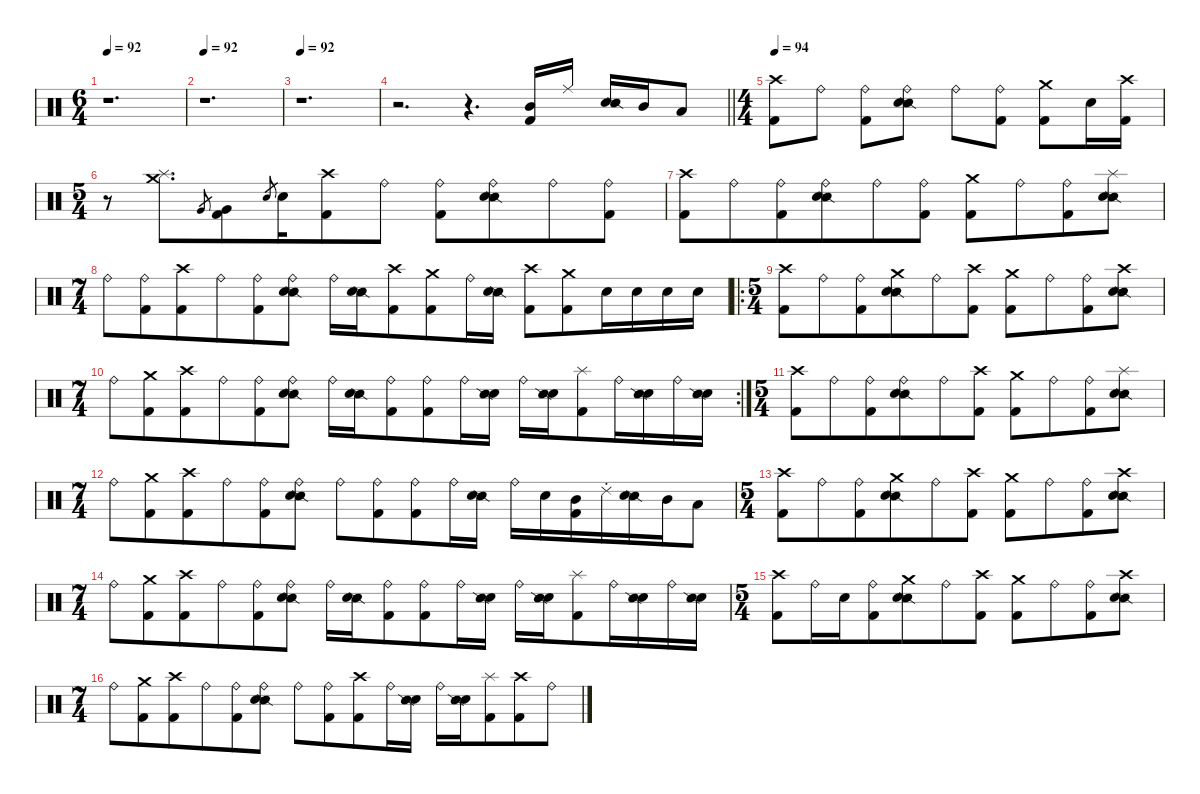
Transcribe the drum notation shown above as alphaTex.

\defaultSystemsLayout 4
\hideDynamics
\bracketExtendMode nobrackets
\singleTrackTrackNamePolicy hidden
\multiTrackTrackNamePolicy hidden
\firstSystemTrackNameMode fullname
\firstSystemTrackNameOrientation horizontal
\otherSystemsTrackNameOrientation horizontal
\track ("Drums" "drm.") {defaultSystemsLayout 4 instrument percussion}
\staff {score}
\articulation defaults
\ts (6 4)
\tempo 92
\clef neutral
\ks c
r.1{d dy fff beam Down} |
\tempo 92
r.1{d beam Down} |
\tempo 92
r.1{d beam Down} |
\barLineRight lightlight
r.2{d beam Down} r.4{d beam Down} ("Mid Tom (hit)" "Kick (hit) 2").16{beam Up} "Ride (middle)".16{beam Up} ("Snare (hit) 2" "Snare (side stick) 2").16{beam Up} "Mid Tom (hit)".16{beam Up} "Low Tom (hit)".8{beam Up} |
\ts (4 4)
\beaming (8 2 2 2 2)
\tempo 94
("Crash high (hit)" "Kick (hit) 2").8{beam Down} "Ride (bell)".8{dy f beam Down} ("Ride (bell)" "Kick (hit) 2").8{beam Down} ("Ride (bell)" "Snare (side stick) 2" "Snare (hit) 2").8{beam Down} "Ride (bell)".8{beam Down} ("Ride (bell)" "Kick (hit) 2").8{beam Down} ("Crash medium (hit)" "Kick (hit) 2").8{dy fff beam Down} "Snare (hit) 2".16{dy ff beam Down} ("Crash high (hit)" "Kick (hit) 2").16{dy fff beam Down} |
\ts (5 4)
\beaming (8 6 4)
r.8{beam Down} ("Crash medium (hit)" "Splash (hit)").8{d beam Down} "Very Low Tom (hit)".8{gr dy f beam Up} ("Very Low Tom (hit)" "Kick (hit) 2").8{beam Down} "Electric Snare (hit)".8{gr dy ff beam Up} "Snare (hit) 2".16{dy fff beam Down} ("Crash high (hit)" "Kick (hit) 2").8{beam Down} "Ride (bell)".8{dy f beam Down} ("Ride (bell)" "Kick (hit) 2").8{beam Down} ("Ride (bell)" "Snare (side stick) 2" "Snare (hit) 2").8{beam Down} "Ride (bell)".8{beam Down} ("Ride (bell)" "Kick (hit) 2").8{beam Down} |
("Crash high (hit)" "Kick (hit) 2").8{dy fff beam Down} "Ride (bell)".8{dy f beam Down} ("Ride (bell)" "Kick (hit) 2").8{beam Down} ("Ride (bell)" "Snare (side stick) 2" "Snare (hit) 2").8{beam Down} "Ride (bell)".8{beam Down} ("Ride (bell)" "Kick (hit) 2").8{beam Down} ("Crash medium (hit)" "Kick (hit) 2").8{dy fff beam Down} "Ride (bell)".8{dy f beam Down} ("Ride (bell)" "Kick (hit) 2").8{beam Down} ("Splash (hit)" "Snare (side stick) 2" "Snare (hit) 2").8{dy fff beam Down} |
\ts (7 4)
\beaming (8 6 4 4)
"Ride (bell)".8{dy f beam Down} ("Ride (bell)" "Kick (hit) 2").8{beam Down} ("Crash high (hit)" "Kick (hit) 2").8{dy fff beam Down} "Ride (bell)".8{dy f beam Down} ("Ride (bell)" "Kick (hit) 2").8{beam Down} ("Ride (bell)" "Snare (side stick) 2" "Snare (hit) 2").8{beam Down} "Ride (bell)".16{beam Down} ("Snare (side stick) 2" "Snare (hit) 2").16{dy ff beam Down} ("Crash high (hit)" "Kick (hit) 2").8{dy fff beam Down} ("Crash medium (hit)" "Kick (hit) 2").8{beam Down} "Ride (bell)".16{dy f beam Down} ("Snare (side stick) 2" "Snare (hit) 2").16{dy ff beam Down} ("Crash high (hit)" "Kick (hit) 2").8{dy fff beam Down} ("Crash medium (hit)" "Kick (hit) 2").8{beam Down} "Snare (hit) 2".16{beam Down} "Snare (hit) 2".16{beam Down} "Snare (hit) 2".16{beam Down} "Snare (hit) 2".16{beam Down} |
\ro
\ts (5 4)
\beaming (8 6 4)
("Crash high (hit)" "Kick (hit) 2").8{beam Down} "Ride (bell)".8{dy f beam Down} ("Ride (bell)" "Kick (hit) 2").8{beam Down} ("Crash medium (hit)" "Snare (side stick) 2" "Snare (hit) 2").8{dy fff beam Down} "Ride (bell)".8{dy f beam Down} ("Crash high (hit)" "Kick (hit) 2").8{dy fff beam Down} ("Crash medium (hit)" "Kick (hit) 2").8{beam Down} "Ride (bell)".8{dy f beam Down} ("Ride (bell)" "Kick (hit) 2").8{beam Down} ("Crash high (hit)" "Snare (side stick) 2" "Snare (hit) 2").8{dy fff beam Down} |
\rc 2
\ts (7 4)
\beaming (8 6 4 4)
"Ride (bell)".8{dy f beam Down} ("Crash medium (hit)" "Kick (hit) 2").8{dy fff beam Down} ("Crash high (hit)" "Kick (hit) 2").8{beam Down} "Ride (bell)".8{dy f beam Down} ("Ride (bell)" "Kick (hit) 2").8{beam Down} ("Ride (bell)" "Snare (side stick) 2" "Snare (hit) 2").8{beam Down} "Ride (bell)".16{beam Down} ("Snare (side stick) 2" "Snare (hit) 2").16{dy ff beam Down} ("Ride (bell)" "Kick (hit) 2").8{dy f beam Down} ("Ride (bell)" "Kick (hit) 2").8{beam Down} "Ride (bell)".16{beam Down} ("Snare (hit) 2" "Snare (side stick) 2").16{dy fff beam Down} "Ride (bell)".16{dy f beam Down} ("Snare (hit) 2" "Snare (side stick) 2").16{dy fff beam Down} ("Splash (hit)" "Kick (hit) 2").8{beam Down} "Ride (bell)".16{dy f beam Down} ("Snare (hit) 2" "Snare (side stick) 2").16{dy fff beam Down} "Ride (bell)".16{dy f beam Down} ("Snare (hit) 2" "Snare (side stick) 2").16{dy fff beam Down} |
\ts (5 4)
\beaming (8 6 4)
("Crash high (hit)" "Kick (hit) 2").8{beam Down} "Ride (bell)".8{dy f beam Down} ("Ride (bell)" "Kick (hit) 2").8{beam Down} ("Ride (bell)" "Snare (side stick) 2" "Snare (hit) 2").8{beam Down} "Ride (bell)".8{beam Down} ("Crash high (hit)" "Kick (hit) 2").8{dy fff beam Down} ("Crash medium (hit)" "Kick (hit) 2").8{beam Down} "Ride (bell)".8{dy f beam Down} ("Ride (bell)" "Kick (hit) 2").8{beam Down} ("Splash (hit)" "Snare (side stick) 2" "Snare (hit) 2").8{dy fff beam Down} |
\ts (7 4)
\beaming (8 6 4 4)
"Ride (bell)".8{dy f beam Down} ("Crash medium (hit)" "Kick (hit) 2").8{dy fff beam Down} ("Crash high (hit)" "Kick (hit) 2").8{beam Down} "Ride (bell)".8{dy f beam Down} ("Ride (bell)" "Kick (hit) 2").8{beam Down} ("Ride (bell)" "Snare (side stick) 2" "Snare (hit) 2").8{beam Down} "Ride (bell)".8{beam Down} ("Ride (bell)" "Kick (hit) 2").8{beam Down} ("Ride (bell)" "Kick (hit) 2").8{beam Down} "Ride (bell)".16{beam Down} ("Snare (side stick) 2" "Snare (hit) 2").16{dy ff beam Down} "Ride (bell)".16{dy f beam Down} "Snare (hit) 2".16{beam Down} ("Mid Tom (hit)" "Kick (hit) 2").16{beam Down} "Ride (choke) 2".16{dy fff beam Down} ("Snare (side stick) 2" "Snare (hit) 2").16{dy ff beam Down} "Mid Tom (hit)".16{dy fff beam Down} "Low Tom (hit)".8{beam Down} |
\ts (5 4)
\beaming (8 6 4)
("Crash high (hit)" "Kick (hit) 2").8{beam Down} "Ride (bell)".8{dy f beam Down} ("Ride (bell)" "Kick (hit) 2").8{beam Down} ("Crash medium (hit)" "Snare (side stick) 2" "Snare (hit) 2").8{dy fff beam Down} "Ride (bell)".8{dy f beam Down} ("Crash high (hit)" "Kick (hit) 2").8{dy fff beam Down} ("Crash medium (hit)" "Kick (hit) 2").8{beam Down} "Ride (bell)".8{dy f beam Down} ("Ride (bell)" "Kick (hit) 2").8{beam Down} ("Crash high (hit)" "Snare (side stick) 2" "Snare (hit) 2").8{dy fff beam Down} |
\ts (7 4)
\beaming (8 6 4 4)
"Ride (bell)".8{dy f beam Down} ("Crash medium (hit)" "Kick (hit) 2").8{dy fff beam Down} ("Crash high (hit)" "Kick (hit) 2").8{beam Down} "Ride (bell)".8{dy f beam Down} ("Ride (bell)" "Kick (hit) 2").8{beam Down} ("Ride (bell)" "Snare (side stick) 2" "Snare (hit) 2").8{beam Down} "Ride (bell)".16{beam Down} ("Snare (side stick) 2" "Snare (hit) 2").16{dy ff beam Down} ("Ride (bell)" "Kick (hit) 2").8{dy f beam Down} ("Ride (bell)" "Kick (hit) 2").8{beam Down} "Ride (bell)".16{beam Down} ("Snare (hit) 2" "Snare (side stick) 2").16{dy fff beam Down} "Ride (bell)".16{dy f beam Down} ("Snare (hit) 2" "Snare (side stick) 2").16{dy fff beam Down} ("Splash (hit)" "Kick (hit) 2").8{beam Down} "Ride (bell)".16{dy f beam Down} ("Snare (hit) 2" "Snare (side stick) 2").16{dy fff beam Down} "Ride (bell)".16{dy f beam Down} ("Snare (hit) 2" "Snare (side stick) 2").16{dy fff beam Down} |
\ts (5 4)
\beaming (8 6 4)
("Crash high (hit)" "Kick (hit) 2").8{beam Down} "Ride (bell)".16{dy f beam Down} "Snare (hit) 2".16{dy ff beam Down} ("Ride (bell)" "Kick (hit) 2").8{dy f beam Down} ("Crash medium (hit)" "Snare (side stick) 2" "Snare (hit) 2").8{dy fff beam Down} "Ride (bell)".8{dy f beam Down} ("Crash high (hit)" "Kick (hit) 2").8{dy fff beam Down} ("Crash medium (hit)" "Kick (hit) 2").8{beam Down} "Ride (bell)".8{dy f beam Down} ("Ride (bell)" "Kick (hit) 2").8{beam Down} ("Crash high (hit)" "Snare (side stick) 2" "Snare (hit) 2").8{dy fff beam Down} |
\ts (7 4)
\beaming (8 6 4 4)
"Ride (bell)".8{dy f beam Down} ("Crash medium (hit)" "Kick (hit) 2").8{dy fff beam Down} ("Crash high (hit)" "Kick (hit) 2").8{beam Down} "Ride (bell)".8{dy f beam Down} ("Ride (bell)" "Kick (hit) 2").8{beam Down} ("Ride (bell)" "Snare (side stick) 2" "Snare (hit) 2").8{beam Down} "Ride (bell)".8{beam Down} ("Ride (bell)" "Kick (hit) 2").8{beam Down} ("Crash high (hit)" "Kick (hit) 2").8{dy fff beam Down} "Ride (bell)".16{dy f beam Down} ("Snare (hit) 2" "Snare (side stick) 2").16{dy fff beam Down} "Ride (bell)".16{dy f beam Down} ("Snare (hit) 2" "Snare (side stick) 2").16{dy fff beam Down} ("Splash (hit)" "Kick (hit) 2").8{beam Down} ("Crash high (hit)" "Kick (hit) 2").8{beam Down} "Ride (bell)".8{dy f beam Down}
